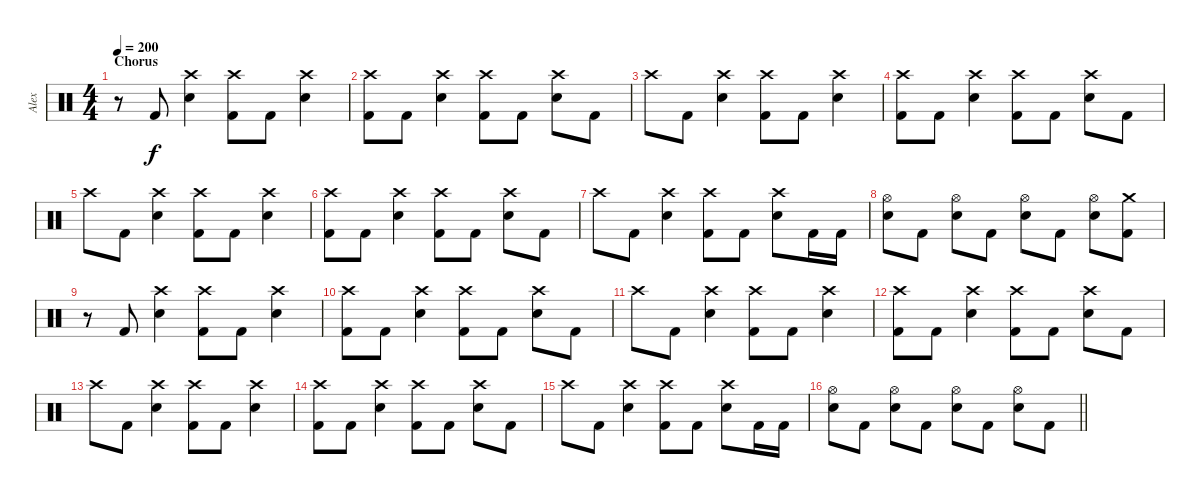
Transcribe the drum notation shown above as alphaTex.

\track ("Alex" "Alex") {instrument percussion}
\staff {score}
\articulation defaults
\ts (4 4)
\section ("" "Chorus")
\tempo 200
\clef neutral
\ks c
r.8{dy f} "Kick (hit) 2".8 ("Crash high (hit)" "Electric Snare (hit)").4 ("Crash high (hit)" "Kick (hit) 2").8 "Kick (hit) 2".8 ("Crash high (hit)" "Electric Snare (hit)").4 |
("Crash high (hit)" "Kick (hit) 2").8 "Kick (hit) 2".8 ("Crash high (hit)" "Electric Snare (hit)").4 ("Crash high (hit)" "Kick (hit) 2").8 "Kick (hit) 2".8 ("Crash high (hit)" "Electric Snare (hit)").8 "Kick (hit) 2".8 |
"Crash high (hit)".8 "Kick (hit) 2".8 ("Crash high (hit)" "Electric Snare (hit)").4 ("Crash high (hit)" "Kick (hit) 2").8 "Kick (hit) 2".8 ("Crash high (hit)" "Electric Snare (hit)").4 |
("Crash high (hit)" "Kick (hit) 2").8 "Kick (hit) 2".8 ("Crash high (hit)" "Electric Snare (hit)").4 ("Crash high (hit)" "Kick (hit) 2").8 "Kick (hit) 2".8 ("Crash high (hit)" "Electric Snare (hit)").8 "Kick (hit) 2".8 |
"Crash high (hit)".8 "Kick (hit) 2".8 ("Crash high (hit)" "Electric Snare (hit)").4 ("Crash high (hit)" "Kick (hit) 2").8 "Kick (hit) 2".8 ("Crash high (hit)" "Electric Snare (hit)").4 |
("Crash high (hit)" "Kick (hit) 2").8 "Kick (hit) 2".8 ("Crash high (hit)" "Electric Snare (hit)").4 ("Crash high (hit)" "Kick (hit) 2").8 "Kick (hit) 2".8 ("Crash high (hit)" "Electric Snare (hit)").8 "Kick (hit) 2".8 |
"Crash high (hit)".8 "Kick (hit) 2".8 ("Crash high (hit)" "Electric Snare (hit)").4 ("Crash high (hit)" "Kick (hit) 2").8 "Kick (hit) 2".8 ("Crash high (hit)" "Electric Snare (hit)").8 "Kick (hit) 2".16 "Kick (hit) 2".16 |
("Hi-Hat (open)" "Electric Snare (hit)").8 "Kick (hit) 2".8 ("Hi-Hat (open)" "Electric Snare (hit)").8 "Kick (hit) 2".8 ("Hi-Hat (open)" "Electric Snare (hit)").8 "Kick (hit) 2".8 ("Hi-Hat (open)" "Electric Snare (hit)").8 ("Crash medium (hit)" "Kick (hit) 2").8 |
r.8 "Kick (hit) 2".8 ("Crash high (hit)" "Electric Snare (hit)").4 ("Crash high (hit)" "Kick (hit) 2").8 "Kick (hit) 2".8 ("Crash high (hit)" "Electric Snare (hit)").4 |
("Crash high (hit)" "Kick (hit) 2").8 "Kick (hit) 2".8 ("Crash high (hit)" "Electric Snare (hit)").4 ("Crash high (hit)" "Kick (hit) 2").8 "Kick (hit) 2".8 ("Crash high (hit)" "Electric Snare (hit)").8 "Kick (hit) 2".8 |
"Crash high (hit)".8 "Kick (hit) 2".8 ("Crash high (hit)" "Electric Snare (hit)").4 ("Crash high (hit)" "Kick (hit) 2").8 "Kick (hit) 2".8 ("Crash high (hit)" "Electric Snare (hit)").4 |
("Crash high (hit)" "Kick (hit) 2").8 "Kick (hit) 2".8 ("Crash high (hit)" "Electric Snare (hit)").4 ("Crash high (hit)" "Kick (hit) 2").8 "Kick (hit) 2".8 ("Crash high (hit)" "Electric Snare (hit)").8 "Kick (hit) 2".8 |
"Crash high (hit)".8 "Kick (hit) 2".8 ("Crash high (hit)" "Electric Snare (hit)").4 ("Crash high (hit)" "Kick (hit) 2").8 "Kick (hit) 2".8 ("Crash high (hit)" "Electric Snare (hit)").4 |
("Crash high (hit)" "Kick (hit) 2").8 "Kick (hit) 2".8 ("Crash high (hit)" "Electric Snare (hit)").4 ("Crash high (hit)" "Kick (hit) 2").8 "Kick (hit) 2".8 ("Crash high (hit)" "Electric Snare (hit)").8 "Kick (hit) 2".8 |
"Crash high (hit)".8 "Kick (hit) 2".8 ("Crash high (hit)" "Electric Snare (hit)").4 ("Crash high (hit)" "Kick (hit) 2").8 "Kick (hit) 2".8 ("Crash high (hit)" "Electric Snare (hit)").8 "Kick (hit) 2".16 "Kick (hit) 2".16 |
\barLineRight lightlight
("Hi-Hat (open)" "Electric Snare (hit)").8 "Kick (hit) 2".8 ("Hi-Hat (open)" "Electric Snare (hit)").8 "Kick (hit) 2".8 ("Hi-Hat (open)" "Electric Snare (hit)").8 "Kick (hit) 2".8 ("Hi-Hat (open)" "Electric Snare (hit)").8 "Kick (hit) 2".8
